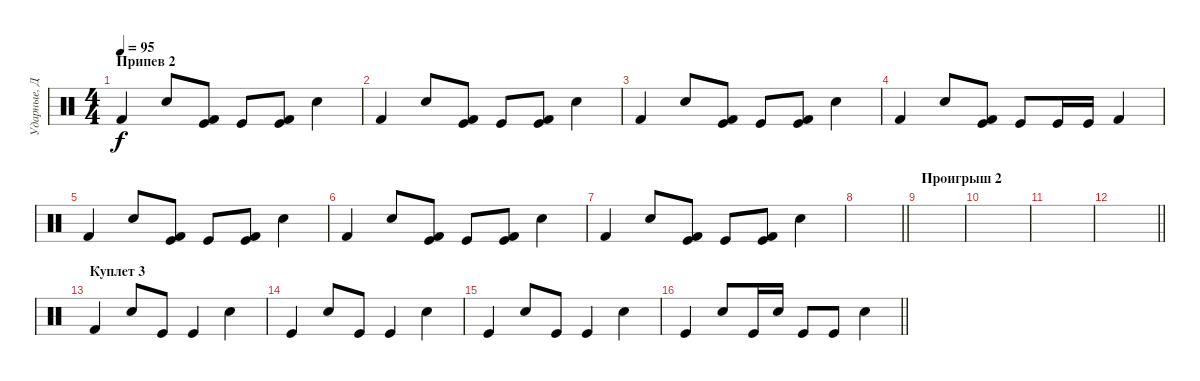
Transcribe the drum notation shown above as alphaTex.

\track ("Ударные, Дэн" "Ударные, Д") {instrument percussion}
\staff {score}
\articulation defaults
\ts (4 4)
\section ("" "Припев 2")
\tempo 95
\clef neutral
\ks c "Kick (hit) 2".4{dy f} "Electric Snare (hit)".8
("Kick (hit) 2" "Kick (hit)").8 "Kick (hit)".8 ("Kick (hit) 2" "Kick (hit)").8 "Electric Snare (hit)".4 |
"Kick (hit) 2".4 "Electric Snare (hit)".8 ("Kick (hit) 2" "Kick (hit)").8 "Kick (hit)".8 ("Kick (hit) 2" "Kick (hit)").8 "Electric Snare (hit)".4 |
"Kick (hit) 2".4 "Electric Snare (hit)".8 ("Kick (hit) 2" "Kick (hit)").8 "Kick (hit)".8 ("Kick (hit) 2" "Kick (hit)").8 "Electric Snare (hit)".4 |
"Kick (hit) 2".4 "Electric Snare (hit)".8 ("Kick (hit) 2" "Kick (hit)").8 "Kick (hit)".8 "Kick (hit)".16 "Kick (hit)".16 "Kick (hit) 2".4 |
"Kick (hit) 2".4 "Electric Snare (hit)".8 ("Kick (hit) 2" "Kick (hit)").8 "Kick (hit)".8 ("Kick (hit) 2" "Kick (hit)").8 "Electric Snare (hit)".4 |
"Kick (hit) 2".4 "Electric Snare (hit)".8 ("Kick (hit) 2" "Kick (hit)").8 "Kick (hit)".8 ("Kick (hit) 2" "Kick (hit)").8 "Electric Snare (hit)".4 |
"Kick (hit) 2".4 "Electric Snare (hit)".8 ("Kick (hit) 2" "Kick (hit)").8 "Kick (hit)".8 ("Kick (hit) 2" "Kick (hit)").8 "Electric Snare (hit)".4 |
\barLineRight lightlight
|
\section ("" "Проигрыш 2")
|
|
|
\barLineRight lightlight
|
\section ("" "Куплет 3")
"Kick (hit) 2".4 "Electric Snare (hit)".8 "Kick (hit)".8 "Kick (hit)".4 "Electric Snare (hit)".4 |
"Kick (hit)".4 "Electric Snare (hit)".8 "Kick (hit)".8 "Kick (hit)".4 "Electric Snare (hit)".4 |
"Kick (hit)".4 "Electric Snare (hit)".8 "Kick (hit)".8 "Kick (hit)".4 "Electric Snare (hit)".4 |
\barLineRight lightlight "Kick (hit)".4 "Electric Snare (hit)".8 "Kick (hit)".16 "Electric Snare (hit)".16 "Kick (hit)".8 "Kick (hit)".8 "Electric Snare (hit)".4
